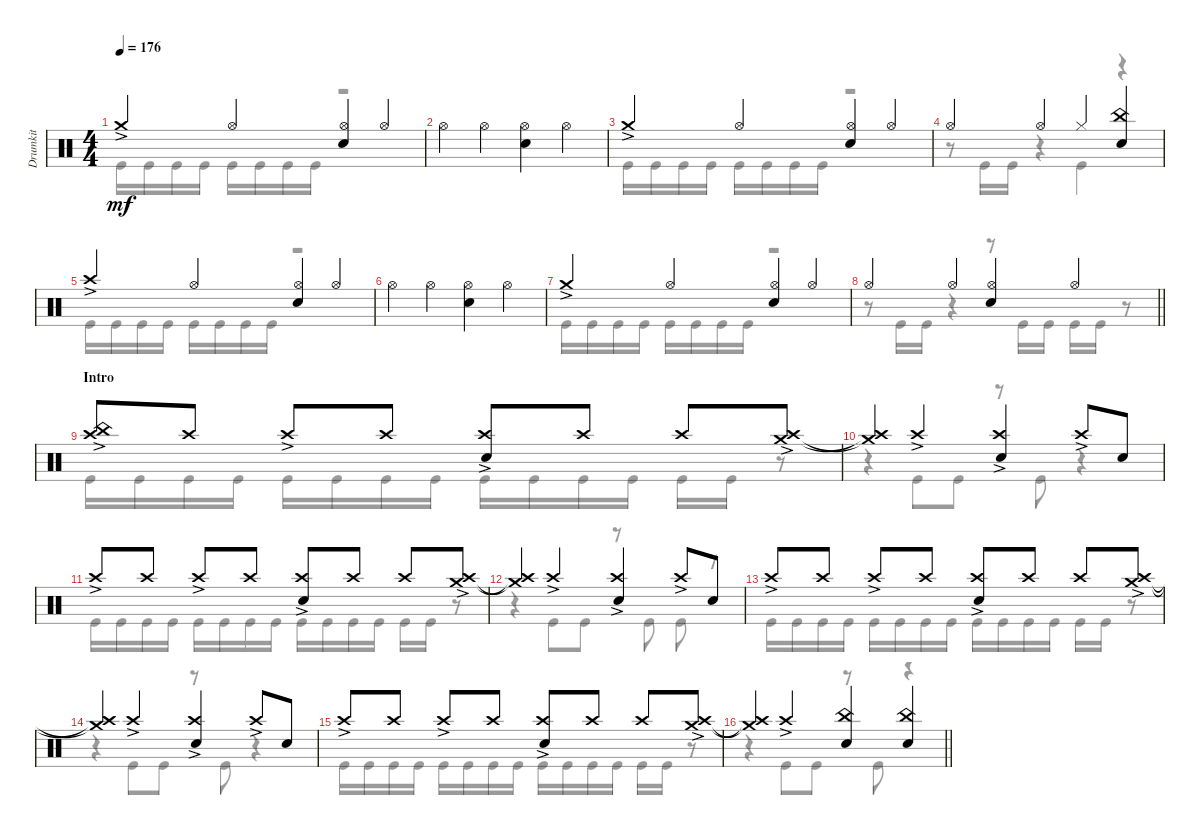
\track ("Drumkit" "Drumkit") {instrument percussion}
\staff {score}
\articulation defaults
\voice
\ts (4 4)
\tempo 176
\clef neutral
\ks c "Crash medium (hit)"{ac}.4{dy mf} "Hi-Hat (open)".4
("Hi-Hat (open)" "Snare (hit) 2").4 "Hi-Hat (open)".4 |
"Hi-Hat (open)".4 "Hi-Hat (open)".4 ("Hi-Hat (open)" "Snare (hit) 2").4 "Hi-Hat (open)".4 |
"Crash medium (hit)"{ac}.4 "Hi-Hat (open)".4 ("Hi-Hat (open)" "Snare (hit) 2").4 "Hi-Hat (open)".4 |
"Hi-Hat (open)".4 "Hi-Hat (open)".4 "Hi-Hat (closed)".4 ("China (hit)" "Snare (hit) 2").4 |
"Crash high (hit)"{ac}.4 "Hi-Hat (open)".4 ("Hi-Hat (open)" "Snare (hit) 2").4 "Hi-Hat (open)".4 |
"Hi-Hat (open)".4 "Hi-Hat (open)".4 ("Hi-Hat (open)" "Snare (hit) 2").4 "Hi-Hat (open)".4 |
"Crash medium (hit)"{ac}.4 "Hi-Hat (open)".4 ("Hi-Hat (open)" "Snare (hit) 2").4 "Hi-Hat (open)".4 |
\barLineRight lightlight "Hi-Hat (open)".4 "Hi-Hat (open)".4
("Hi-Hat (open)" "Snare (hit) 2").4 "Hi-Hat (open)".4 |
\section ("" "Intro")
("Crash high (hit)"{ac} "China (hit)").8 "Crash high (hit)".8 "Crash high (hit)"{ac}.8 "Crash high (hit)".8 ("Snare (hit) 2" "Crash high (hit)"{ac}).8 "Crash high (hit)".8 "Crash high (hit)".8 ("Crash high (hit)"{ac} "Crash medium (hit)"{ac}).8 |
("Crash medium (hit)"{t} "Crash high (hit)"{t}).4 "Crash high (hit)"{ac}.4 ("Snare (hit) 2" "Crash high (hit)"{ac}).4 "Crash high (hit)"{ac}.8 "Snare (hit) 2".8 |
"Crash high (hit)"{ac}.8 "Crash high (hit)".8 "Crash high (hit)"{ac}.8 "Crash high (hit)".8 ("Snare (hit) 2" "Crash high (hit)"{ac}).8 "Crash high (hit)".8 "Crash high (hit)".8 ("Crash high (hit)"{ac} "Crash medium (hit)"{ac}).8 |
("Crash medium (hit)"{t} "Crash high (hit)"{t}).4 "Crash high (hit)"{ac}.4 ("Snare (hit) 2" "Crash high (hit)"{ac}).4 "Crash high (hit)"{ac}.8 "Snare (hit) 2".8 |
"Crash high (hit)"{ac}.8 "Crash high (hit)".8 "Crash high (hit)"{ac}.8 "Crash high (hit)".8 ("Snare (hit) 2" "Crash high (hit)"{ac}).8 "Crash high (hit)".8 "Crash high (hit)".8 ("Crash high (hit)"{ac} "Crash medium (hit)"{ac}).8 |
("Crash medium (hit)"{t} "Crash high (hit)"{t}).4 "Crash high (hit)"{ac}.4 ("Snare (hit) 2" "Crash high (hit)"{ac}).4 "Crash high (hit)"{ac}.8 "Snare (hit) 2".8 |
"Crash high (hit)"{ac}.8 "Crash high (hit)".8 "Crash high (hit)"{ac}.8 "Crash high (hit)".8 ("Snare (hit) 2" "Crash high (hit)"{ac}).8 "Crash high (hit)".8 "Crash high (hit)".8 ("Crash high (hit)"{ac} "Crash medium (hit)"{ac}).8 |
\barLineRight lightlight
("Crash medium (hit)"{t} "Crash high (hit)"{t}).4 "Crash high (hit)"{ac}.4 ("Snare (hit) 2" "China (hit)").4 ("China (hit)" "Snare (hit) 2").4
\voice
\clef neutral
\ottava regular
\simile none
\ks c "Kick (hit)".16{dy mf} "Kick (hit)".16 "Kick (hit)".16 "Kick (hit)".16 "Kick (hit)".16 "Kick (hit)".16 "Kick (hit)".16 "Kick (hit)".16
r.2 |
|
"Kick (hit)".16 "Kick (hit)".16 "Kick (hit)".16 "Kick (hit)".16 "Kick (hit)".16 "Kick (hit)".16 "Kick (hit)".16 "Kick (hit)".16 r.2 |
r.8 "Kick (hit)".16 "Kick (hit)".16 r.4 "Kick (hit)".4 r.4 |
"Kick (hit)".16 "Kick (hit)".16 "Kick (hit)".16 "Kick (hit)".16 "Kick (hit)".16 "Kick (hit)".16 "Kick (hit)".16 "Kick (hit)".16 r.2 |
|
"Kick (hit)".16 "Kick (hit)".16 "Kick (hit)".16 "Kick (hit)".16 "Kick (hit)".16 "Kick (hit)".16 "Kick (hit)".16 "Kick (hit)".16 r.2 |
\barLineRight lightlight
r.8 "Kick (hit)".16 "Kick (hit)".16 r.4 r.8 "Kick (hit)".16 "Kick (hit)".16 "Kick (hit)".16 "Kick (hit)".16 r.8 |
"Kick (hit)".16 "Kick (hit)".16 "Kick (hit)".16 "Kick (hit)".16 "Kick (hit)".16 "Kick (hit)".16 "Kick (hit)".16 "Kick (hit)".16 "Kick (hit)".16 "Kick (hit)".16 "Kick (hit)".16 "Kick (hit)".16 "Kick (hit)".16 "Kick (hit)".16 r.8 |
r.4 "Kick (hit)".8 "Kick (hit)".8 r.8 "Kick (hit)".8 r.4 |
"Kick (hit)".16 "Kick (hit)".16 "Kick (hit)".16 "Kick (hit)".16 "Kick (hit)".16 "Kick (hit)".16 "Kick (hit)".16 "Kick (hit)".16 "Kick (hit)".16 "Kick (hit)".16 "Kick (hit)".16 "Kick (hit)".16 "Kick (hit)".16 "Kick (hit)".16 r.8 |
r.4 "Kick (hit)".8 "Kick (hit)".8 r.8 "Kick (hit)".8 "Kick (hit)".8 r.8 |
"Kick (hit)".16 "Kick (hit)".16 "Kick (hit)".16 "Kick (hit)".16 "Kick (hit)".16 "Kick (hit)".16 "Kick (hit)".16 "Kick (hit)".16 "Kick (hit)".16 "Kick (hit)".16 "Kick (hit)".16 "Kick (hit)".16 "Kick (hit)".16 "Kick (hit)".16 r.8 |
r.4 "Kick (hit)".8 "Kick (hit)".8 r.8 "Kick (hit)".8 r.4 |
"Kick (hit)".16 "Kick (hit)".16 "Kick (hit)".16 "Kick (hit)".16 "Kick (hit)".16 "Kick (hit)".16 "Kick (hit)".16 "Kick (hit)".16 "Kick (hit)".16 "Kick (hit)".16 "Kick (hit)".16 "Kick (hit)".16 "Kick (hit)".16 "Kick (hit)".16 r.8 |
\barLineRight lightlight
r.4 "Kick (hit)".8 "Kick (hit)".8 r.8 "Kick (hit)".8 r.4
